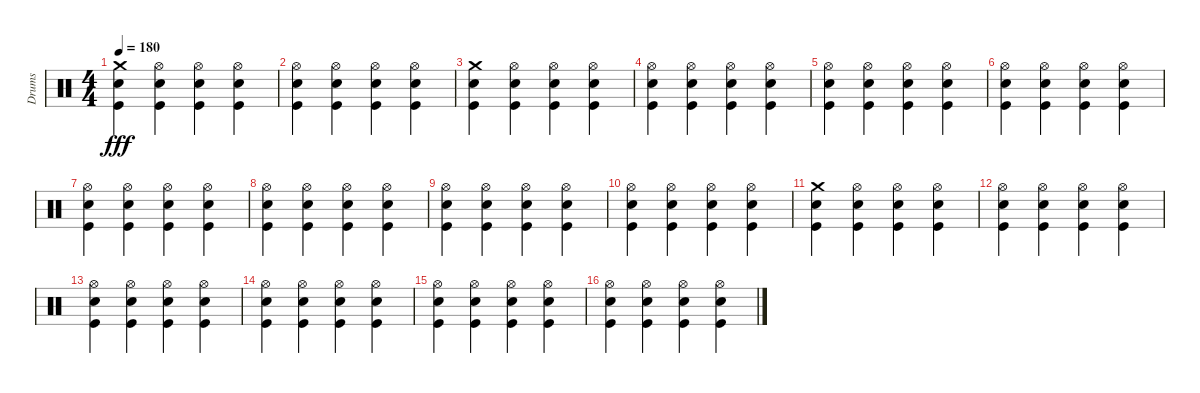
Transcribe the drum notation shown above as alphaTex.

\track ("Drums" "Drums") {instrument percussion}
\staff {score}
\articulation defaults
\ts (4 4)
\tempo 180
\clef neutral
\ks c
("Crash medium (hit)" "Kick (hit)" "Snare (hit) 2").4{dy fff} ("Hi-Hat (open)" "Kick (hit)" "Snare (hit) 2").4 ("Hi-Hat (open)" "Kick (hit)" "Snare (hit) 2").4 ("Snare (hit) 2" "Kick (hit)" "Hi-Hat (open)").4 |
("Hi-Hat (open)" "Kick (hit)" "Snare (hit) 2").4 ("Hi-Hat (open)" "Kick (hit)" "Snare (hit) 2").4 ("Hi-Hat (open)" "Kick (hit)" "Snare (hit) 2").4 ("Snare (hit) 2" "Kick (hit)" "Hi-Hat (open)").4 |
("Crash medium (hit)" "Kick (hit)" "Snare (hit) 2").4 ("Hi-Hat (open)" "Kick (hit)" "Snare (hit) 2").4 ("Hi-Hat (open)" "Kick (hit)" "Snare (hit) 2").4 ("Snare (hit) 2" "Kick (hit)" "Hi-Hat (open)").4 |
("Hi-Hat (open)" "Kick (hit)" "Snare (hit) 2").4 ("Hi-Hat (open)" "Kick (hit)" "Snare (hit) 2").4 ("Hi-Hat (open)" "Kick (hit)" "Snare (hit) 2").4 ("Snare (hit) 2" "Kick (hit)" "Hi-Hat (open)").4 |
("Hi-Hat (open)" "Kick (hit)" "Snare (hit) 2").4 ("Hi-Hat (open)" "Kick (hit)" "Snare (hit) 2").4 ("Hi-Hat (open)" "Kick (hit)" "Snare (hit) 2").4 ("Snare (hit) 2" "Kick (hit)" "Hi-Hat (open)").4 |
("Hi-Hat (open)" "Kick (hit)" "Snare (hit) 2").4 ("Hi-Hat (open)" "Kick (hit)" "Snare (hit) 2").4 ("Hi-Hat (open)" "Kick (hit)" "Snare (hit) 2").4 ("Snare (hit) 2" "Kick (hit)" "Hi-Hat (open)").4 |
("Hi-Hat (open)" "Kick (hit)" "Snare (hit) 2").4 ("Hi-Hat (open)" "Kick (hit)" "Snare (hit) 2").4 ("Hi-Hat (open)" "Kick (hit)" "Snare (hit) 2").4 ("Snare (hit) 2" "Kick (hit)" "Hi-Hat (open)").4 |
("Hi-Hat (open)" "Kick (hit)" "Snare (hit) 2").4 ("Hi-Hat (open)" "Kick (hit)" "Snare (hit) 2").4 ("Hi-Hat (open)" "Kick (hit)" "Snare (hit) 2").4 ("Snare (hit) 2" "Kick (hit)" "Hi-Hat (open)").4 |
("Hi-Hat (open)" "Kick (hit)" "Snare (hit) 2").4 ("Hi-Hat (open)" "Kick (hit)" "Snare (hit) 2").4 ("Hi-Hat (open)" "Kick (hit)" "Snare (hit) 2").4 ("Snare (hit) 2" "Kick (hit)" "Hi-Hat (open)").4 |
("Hi-Hat (open)" "Kick (hit)" "Snare (hit) 2").4 ("Hi-Hat (open)" "Kick (hit)" "Snare (hit) 2").4 ("Hi-Hat (open)" "Kick (hit)" "Snare (hit) 2").4 ("Snare (hit) 2" "Kick (hit)" "Hi-Hat (open)").4 |
("Crash medium (hit)" "Kick (hit)" "Snare (hit) 2").4 ("Hi-Hat (open)" "Kick (hit)" "Snare (hit) 2").4 ("Hi-Hat (open)" "Kick (hit)" "Snare (hit) 2").4 ("Snare (hit) 2" "Kick (hit)" "Hi-Hat (open)").4 |
("Hi-Hat (open)" "Kick (hit)" "Snare (hit) 2").4 ("Hi-Hat (open)" "Kick (hit)" "Snare (hit) 2").4 ("Hi-Hat (open)" "Kick (hit)" "Snare (hit) 2").4 ("Snare (hit) 2" "Kick (hit)" "Hi-Hat (open)").4 |
("Hi-Hat (open)" "Kick (hit)" "Snare (hit) 2").4 ("Hi-Hat (open)" "Kick (hit)" "Snare (hit) 2").4 ("Hi-Hat (open)" "Kick (hit)" "Snare (hit) 2").4 ("Snare (hit) 2" "Kick (hit)" "Hi-Hat (open)").4 |
("Hi-Hat (open)" "Kick (hit)" "Snare (hit) 2").4 ("Hi-Hat (open)" "Kick (hit)" "Snare (hit) 2").4 ("Hi-Hat (open)" "Kick (hit)" "Snare (hit) 2").4 ("Snare (hit) 2" "Kick (hit)" "Hi-Hat (open)").4 |
("Hi-Hat (open)" "Kick (hit)" "Snare (hit) 2").4 ("Hi-Hat (open)" "Kick (hit)" "Snare (hit) 2").4 ("Hi-Hat (open)" "Kick (hit)" "Snare (hit) 2").4 ("Snare (hit) 2" "Kick (hit)" "Hi-Hat (open)").4 |
("Hi-Hat (open)" "Kick (hit)" "Snare (hit) 2").4 ("Hi-Hat (open)" "Kick (hit)" "Snare (hit) 2").4 ("Hi-Hat (open)" "Kick (hit)" "Snare (hit) 2").4 ("Snare (hit) 2" "Kick (hit)" "Hi-Hat (open)").4
